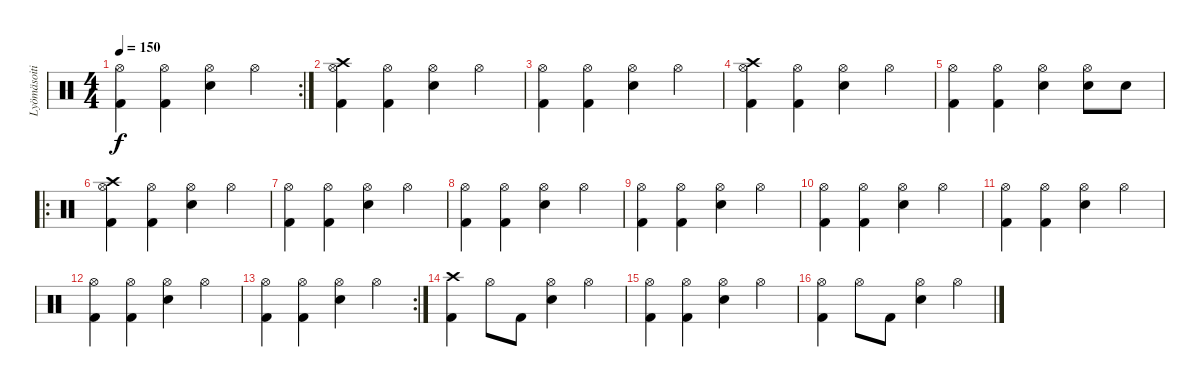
\track ("Lyömäsoitin" "Lyömäsoiti") {instrument percussion}
\staff {score}
\articulation defaults
\rc 2
\ts (4 4)
\tempo 150
\clef neutral
\ks c
("Hi-Hat (open)" "Kick (hit) 2").4{dy f} ("Hi-Hat (open)" "Kick (hit) 2").4 ("Hi-Hat (open)" "Snare (hit) 2").4 "Hi-Hat (open)".4 |
("Crash high (hit)" "Hi-Hat (open)" "Kick (hit) 2").4 ("Hi-Hat (open)" "Kick (hit) 2").4 ("Hi-Hat (open)" "Snare (hit) 2").4 "Hi-Hat (open)".4 |
("Hi-Hat (open)" "Kick (hit) 2").4 ("Hi-Hat (open)" "Kick (hit) 2").4 ("Hi-Hat (open)" "Snare (hit) 2").4 "Hi-Hat (open)".4 |
("Crash high (hit)" "Hi-Hat (open)" "Kick (hit) 2").4 ("Hi-Hat (open)" "Kick (hit) 2").4 ("Hi-Hat (open)" "Snare (hit) 2").4 "Hi-Hat (open)".4 |
("Hi-Hat (open)" "Kick (hit) 2").4 ("Hi-Hat (open)" "Kick (hit) 2").4 ("Hi-Hat (open)" "Snare (hit) 2").4 ("Hi-Hat (open)" "Snare (hit) 2").8 "Snare (hit) 2".8 |
\ro
("Crash high (hit)" "Hi-Hat (open)" "Kick (hit) 2").4 ("Hi-Hat (open)" "Kick (hit) 2").4 ("Hi-Hat (open)" "Snare (hit) 2").4 "Hi-Hat (open)".4 |
("Hi-Hat (open)" "Kick (hit) 2").4 ("Hi-Hat (open)" "Kick (hit) 2").4 ("Hi-Hat (open)" "Snare (hit) 2").4 "Hi-Hat (open)".4 |
("Hi-Hat (open)" "Kick (hit) 2").4 ("Hi-Hat (open)" "Kick (hit) 2").4 ("Hi-Hat (open)" "Snare (hit) 2").4 "Hi-Hat (open)".4 |
("Hi-Hat (open)" "Kick (hit) 2").4 ("Hi-Hat (open)" "Kick (hit) 2").4 ("Hi-Hat (open)" "Snare (hit) 2").4 "Hi-Hat (open)".4 |
("Hi-Hat (open)" "Kick (hit) 2").4 ("Hi-Hat (open)" "Kick (hit) 2").4 ("Hi-Hat (open)" "Snare (hit) 2").4 "Hi-Hat (open)".4 |
("Hi-Hat (open)" "Kick (hit) 2").4 ("Hi-Hat (open)" "Kick (hit) 2").4 ("Hi-Hat (open)" "Snare (hit) 2").4 "Hi-Hat (open)".4 |
("Hi-Hat (open)" "Kick (hit) 2").4 ("Hi-Hat (open)" "Kick (hit) 2").4 ("Hi-Hat (open)" "Snare (hit) 2").4 "Hi-Hat (open)".4 |
\rc 2
("Hi-Hat (open)" "Kick (hit) 2").4 ("Hi-Hat (open)" "Kick (hit) 2").4 ("Hi-Hat (open)" "Snare (hit) 2").4 "Hi-Hat (open)".4 |
("Crash high (hit)" "Kick (hit) 2").4 "Hi-Hat (open)".8 "Kick (hit) 2".8 ("Hi-Hat (open)" "Snare (hit) 2").4 "Hi-Hat (open)".4 |
("Hi-Hat (open)" "Kick (hit) 2").4 ("Hi-Hat (open)" "Kick (hit) 2").4 ("Hi-Hat (open)" "Snare (hit) 2").4 "Hi-Hat (open)".4 |
("Hi-Hat (open)" "Kick (hit) 2").4 "Hi-Hat (open)".8 "Kick (hit) 2".8 ("Hi-Hat (open)" "Snare (hit) 2").4 "Hi-Hat (open)".4
